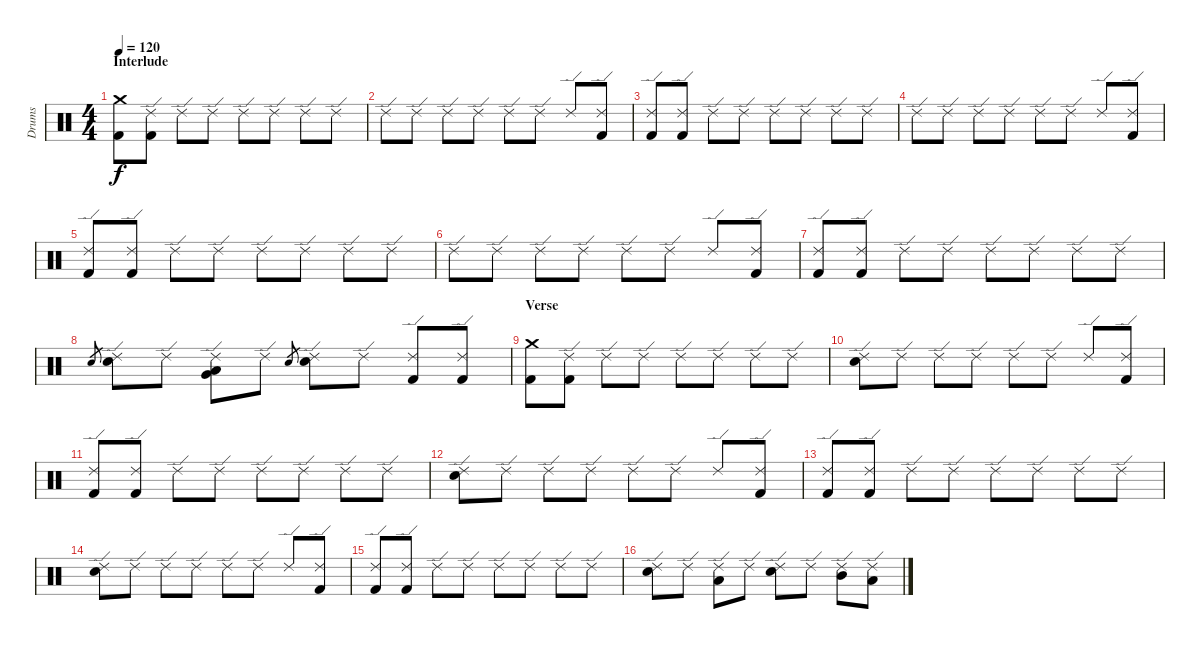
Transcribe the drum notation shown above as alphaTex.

\track ("Drums" "Drums") {instrument percussion}
\staff {score}
\articulation defaults
\ts (4 4)
\section ("" "Interlude")
\tempo 120
\clef neutral
\ks c
("Crash medium (hit)" "Kick (hit) 2").8{dy f} ("Ride (edge) 2" "Kick (hit) 2").8 "Ride (edge) 2".8 "Ride (edge) 2".8 "Ride (edge) 2".8 "Ride (edge) 2".8 "Ride (edge) 2".8 "Ride (edge) 2".8 |
"Ride (edge) 2".8 "Ride (edge) 2".8 "Ride (edge) 2".8 "Ride (edge) 2".8 "Ride (edge) 2".8 "Ride (edge) 2".8 "Ride (edge) 2".8 ("Ride (edge) 2" "Kick (hit) 2").8 |
("Ride (edge) 2" "Kick (hit) 2").8 ("Ride (edge) 2" "Kick (hit) 2").8 "Ride (edge) 2".8 "Ride (edge) 2".8 "Ride (edge) 2".8 "Ride (edge) 2".8 "Ride (edge) 2".8 "Ride (edge) 2".8 |
"Ride (edge) 2".8 "Ride (edge) 2".8 "Ride (edge) 2".8 "Ride (edge) 2".8 "Ride (edge) 2".8 "Ride (edge) 2".8 "Ride (edge) 2".8 ("Ride (edge) 2" "Kick (hit) 2").8 |
("Ride (edge) 2" "Kick (hit) 2").8 ("Ride (edge) 2" "Kick (hit) 2").8 "Ride (edge) 2".8 "Ride (edge) 2".8 "Ride (edge) 2".8 "Ride (edge) 2".8 "Ride (edge) 2".8 "Ride (edge) 2".8 |
"Ride (edge) 2".8 "Ride (edge) 2".8 "Ride (edge) 2".8 "Ride (edge) 2".8 "Ride (edge) 2".8 "Ride (edge) 2".8 "Ride (edge) 2".8 ("Ride (edge) 2" "Kick (hit) 2").8 |
("Ride (edge) 2" "Kick (hit) 2").8 ("Ride (edge) 2" "Kick (hit) 2").8 "Ride (edge) 2".8 "Ride (edge) 2".8 "Ride (edge) 2".8 "Ride (edge) 2".8 "Ride (edge) 2".8 "Ride (edge) 2".8 |
"Snare (hit) 2".8{gr} ("Ride (edge) 2" "Snare (hit) 2").8 "Ride (edge) 2".8 ("Ride (edge) 2" "Very Low Tom (hit)" "Low Floor Tom (hit)").8 "Ride (edge) 2".8 "Snare (hit) 2".8{gr} ("Ride (edge) 2" "Snare (hit) 2").8 "Ride (edge) 2".8 ("Ride (edge) 2" "Kick (hit) 2").8 ("Ride (edge) 2" "Kick (hit) 2").8 |
\section ("" "Verse")
("Crash medium (hit)" "Kick (hit) 2").8 ("Ride (edge) 2" "Kick (hit) 2").8 "Ride (edge) 2".8 "Ride (edge) 2".8 "Ride (edge) 2".8 "Ride (edge) 2".8 "Ride (edge) 2".8 "Ride (edge) 2".8 |
("Ride (edge) 2" "Snare (hit) 2").8 "Ride (edge) 2".8 "Ride (edge) 2".8 "Ride (edge) 2".8 "Ride (edge) 2".8 "Ride (edge) 2".8 "Ride (edge) 2".8 ("Ride (edge) 2" "Kick (hit) 2").8 |
("Ride (edge) 2" "Kick (hit) 2").8 ("Ride (edge) 2" "Kick (hit) 2").8 "Ride (edge) 2".8 "Ride (edge) 2".8 "Ride (edge) 2".8 "Ride (edge) 2".8 "Ride (edge) 2".8 "Ride (edge) 2".8 |
("Ride (edge) 2" "Snare (hit) 2").8 "Ride (edge) 2".8 "Ride (edge) 2".8 "Ride (edge) 2".8 "Ride (edge) 2".8 "Ride (edge) 2".8 "Ride (edge) 2".8 ("Ride (edge) 2" "Kick (hit) 2").8 |
("Ride (edge) 2" "Kick (hit) 2").8 ("Ride (edge) 2" "Kick (hit) 2").8 "Ride (edge) 2".8 "Ride (edge) 2".8 "Ride (edge) 2".8 "Ride (edge) 2".8 "Ride (edge) 2".8 "Ride (edge) 2".8 |
("Ride (edge) 2" "Snare (hit) 2").8 "Ride (edge) 2".8 "Ride (edge) 2".8 "Ride (edge) 2".8 "Ride (edge) 2".8 "Ride (edge) 2".8 "Ride (edge) 2".8 ("Ride (edge) 2" "Kick (hit) 2").8 |
("Ride (edge) 2" "Kick (hit) 2").8 ("Ride (edge) 2" "Kick (hit) 2").8 "Ride (edge) 2".8 "Ride (edge) 2".8 "Ride (edge) 2".8 "Ride (edge) 2".8 "Ride (edge) 2".8 "Ride (edge) 2".8 |
("Ride (edge) 2" "Snare (hit) 2").8 "Ride (edge) 2".8 ("Ride (edge) 2" "Low Tom (hit)").8 "Ride (edge) 2".8 ("Ride (edge) 2" "Snare (hit) 2").8 "Ride (edge) 2".8 ("Ride (edge) 2" "Mid Tom (hit)").8 ("Ride (edge) 2" "Low Tom (hit)").8
